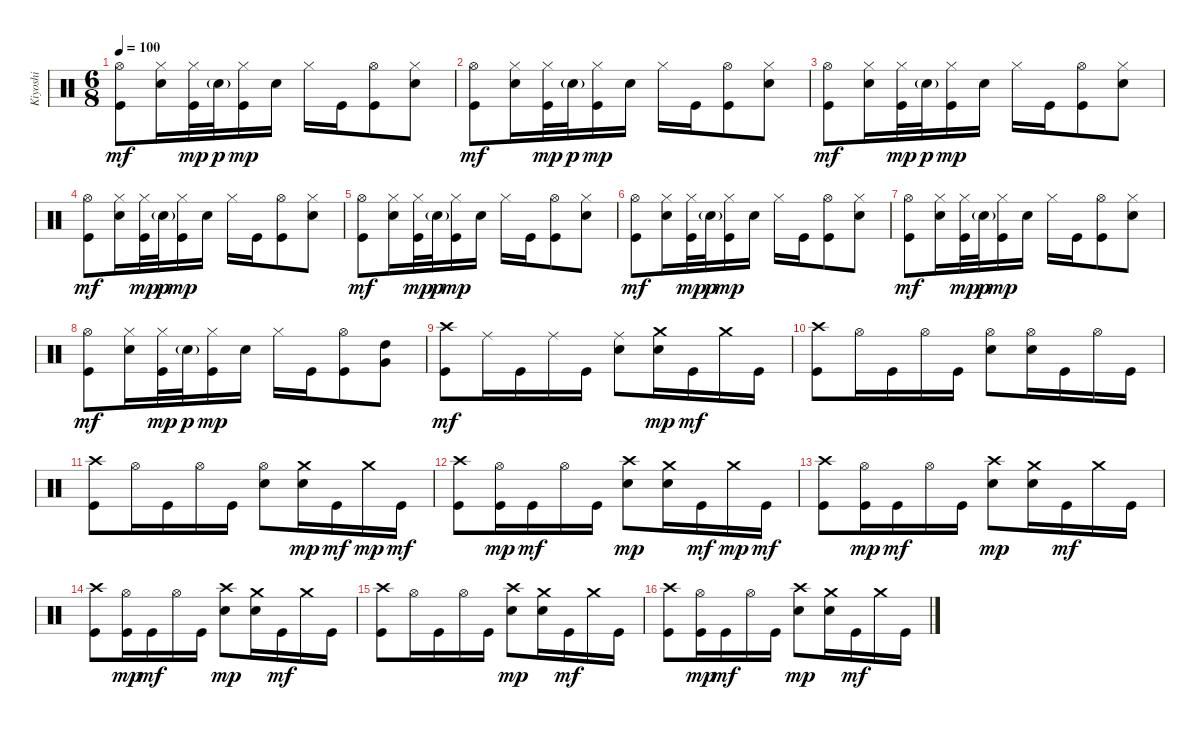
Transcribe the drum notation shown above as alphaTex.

\track ("Kiyoshi" "Kiyoshi") {instrument percussion}
\staff {score}
\articulation defaults
\ts (6 8)
\tempo 100
\clef neutral
\ks c
("Kick (hit)" "Hi-Hat (open)").8{dy mf} ("Electric Snare (hit)" "Hi-Hat (closed)").16 ("Hi-Hat (closed)" "Kick (hit)").32{dy mp} "Electric Snare (hit)"{g}.32{dy p} ("Hi-Hat (closed)" "Kick (hit)").16{dy mp} "Electric Snare (hit)".16 "Hi-Hat (closed)".16 "Kick (hit)".16 ("Kick (hit)" "Hi-Hat (open)").8 ("Hi-Hat (closed)" "Electric Snare (hit)").8 |
("Kick (hit)" "Hi-Hat (open)").8{dy mf} ("Electric Snare (hit)" "Hi-Hat (closed)").16 ("Hi-Hat (closed)" "Kick (hit)").32{dy mp} "Electric Snare (hit)"{g}.32{dy p} ("Hi-Hat (closed)" "Kick (hit)").16{dy mp} "Electric Snare (hit)".16 "Hi-Hat (closed)".16 "Kick (hit)".16 ("Kick (hit)" "Hi-Hat (open)").8 ("Hi-Hat (closed)" "Electric Snare (hit)").8 |
("Kick (hit)" "Hi-Hat (open)").8{dy mf} ("Electric Snare (hit)" "Hi-Hat (closed)").16 ("Hi-Hat (closed)" "Kick (hit)").32{dy mp} "Electric Snare (hit)"{g}.32{dy p} ("Hi-Hat (closed)" "Kick (hit)").16{dy mp} "Electric Snare (hit)".16 "Hi-Hat (closed)".16 "Kick (hit)".16 ("Kick (hit)" "Hi-Hat (open)").8 ("Hi-Hat (closed)" "Electric Snare (hit)").8 |
("Kick (hit)" "Hi-Hat (open)").8{dy mf} ("Electric Snare (hit)" "Hi-Hat (closed)").16 ("Hi-Hat (closed)" "Kick (hit)").32{dy mp} "Electric Snare (hit)"{g}.32{dy p} ("Hi-Hat (closed)" "Kick (hit)").16{dy mp} "Electric Snare (hit)".16 "Hi-Hat (closed)".16 "Kick (hit)".16 ("Kick (hit)" "Hi-Hat (open)").8 ("Hi-Hat (closed)" "Electric Snare (hit)").8 |
("Kick (hit)" "Hi-Hat (open)").8{dy mf} ("Electric Snare (hit)" "Hi-Hat (closed)").16 ("Hi-Hat (closed)" "Kick (hit)").32{dy mp} "Electric Snare (hit)"{g}.32{dy p} ("Hi-Hat (closed)" "Kick (hit)").16{dy mp} "Electric Snare (hit)".16 "Hi-Hat (closed)".16 "Kick (hit)".16 ("Kick (hit)" "Hi-Hat (open)").8 ("Hi-Hat (closed)" "Electric Snare (hit)").8 |
("Kick (hit)" "Hi-Hat (open)").8{dy mf} ("Electric Snare (hit)" "Hi-Hat (closed)").16 ("Hi-Hat (closed)" "Kick (hit)").32{dy mp} "Electric Snare (hit)"{g}.32{dy p} ("Hi-Hat (closed)" "Kick (hit)").16{dy mp} "Electric Snare (hit)".16 "Hi-Hat (closed)".16 "Kick (hit)".16 ("Kick (hit)" "Hi-Hat (open)").8 ("Hi-Hat (closed)" "Electric Snare (hit)").8 |
("Kick (hit)" "Hi-Hat (open)").8{dy mf} ("Electric Snare (hit)" "Hi-Hat (closed)").16 ("Hi-Hat (closed)" "Kick (hit)").32{dy mp} "Electric Snare (hit)"{g}.32{dy p} ("Hi-Hat (closed)" "Kick (hit)").16{dy mp} "Electric Snare (hit)".16 "Hi-Hat (closed)".16 "Kick (hit)".16 ("Kick (hit)" "Hi-Hat (open)").8 ("Hi-Hat (closed)" "Electric Snare (hit)").8 |
("Kick (hit)" "Hi-Hat (open)").8{dy mf} ("Electric Snare (hit)" "Hi-Hat (closed)").16 ("Hi-Hat (closed)" "Kick (hit)").32{dy mp} "Electric Snare (hit)"{g}.32{dy p} ("Hi-Hat (closed)" "Kick (hit)").16{dy mp} "Electric Snare (hit)".16 "Hi-Hat (closed)".16 "Kick (hit)".16 ("Kick (hit)" "Hi-Hat (open)").8 ("High Tom (hit)" "Very Low Tom (hit)").8 |
("Kick (hit)" "Crash high (hit)").8{dy mf} "Ride (middle)".16 "Kick (hit)".16 "Ride (middle)".16 "Kick (hit)".16 ("Electric Snare (hit)" "Ride (middle)").8 ("Electric Snare (hit)" "Crash medium (hit)").16{dy mp} "Kick (hit)".16{dy mf} "Crash medium (hit)".16 "Kick (hit)".16 |
("Kick (hit)" "Crash high (hit)").8 "Hi-Hat (open)".16 "Kick (hit)".16 "Hi-Hat (open)".16 "Kick (hit)".16 ("Electric Snare (hit)" "Hi-Hat (open)").8 ("Electric Snare (hit)" "Hi-Hat (open)").16 "Kick (hit)".16 "Hi-Hat (open)".16 "Kick (hit)".16 |
("Kick (hit)" "Crash high (hit)").8 "Hi-Hat (open)".16 "Kick (hit)".16 "Hi-Hat (open)".16 "Kick (hit)".16 ("Electric Snare (hit)" "Hi-Hat (open)").8 ("Electric Snare (hit)" "Crash medium (hit)").16{dy mp} "Kick (hit)".16{dy mf} "Crash medium (hit)".16{dy mp} "Kick (hit)".16{dy mf} |
("Kick (hit)" "Crash high (hit)").8 ("Hi-Hat (open)" "Kick (hit)").16{dy mp} "Kick (hit)".16{dy mf} "Hi-Hat (open)".16 "Kick (hit)".16 ("Electric Snare (hit)" "Crash high (hit)").8{dy mp} ("Electric Snare (hit)" "Crash medium (hit)").16 "Kick (hit)".16{dy mf} "Crash medium (hit)".16{dy mp} "Kick (hit)".16{dy mf} |
("Kick (hit)" "Crash high (hit)").8 ("Hi-Hat (open)" "Kick (hit)").16{dy mp} "Kick (hit)".16{dy mf} "Hi-Hat (open)".16 "Kick (hit)".16 ("Electric Snare (hit)" "Crash high (hit)").8{dy mp} ("Electric Snare (hit)" "Crash medium (hit)").16 "Kick (hit)".16{dy mf} "Crash medium (hit)".16 "Kick (hit)".16 |
("Kick (hit)" "Crash high (hit)").8 ("Hi-Hat (open)" "Kick (hit)").16{dy mp} "Kick (hit)".16{dy mf} "Hi-Hat (open)".16 "Kick (hit)".16 ("Electric Snare (hit)" "Crash high (hit)").8{dy mp} ("Electric Snare (hit)" "Crash medium (hit)").16 "Kick (hit)".16{dy mf} "Crash medium (hit)".16 "Kick (hit)".16 |
("Kick (hit)" "Crash high (hit)").8 "Hi-Hat (open)".16 "Kick (hit)".16 "Hi-Hat (open)".16 "Kick (hit)".16 ("Electric Snare (hit)" "Crash high (hit)").8{dy mp} ("Electric Snare (hit)" "Crash medium (hit)").16 "Kick (hit)".16{dy mf} "Crash medium (hit)".16 "Kick (hit)".16 |
("Kick (hit)" "Crash high (hit)").8 ("Hi-Hat (open)" "Kick (hit)").16{dy mp} "Kick (hit)".16{dy mf} "Hi-Hat (open)".16 "Kick (hit)".16 ("Electric Snare (hit)" "Crash high (hit)").8{dy mp} ("Electric Snare (hit)" "Crash medium (hit)").16 "Kick (hit)".16{dy mf} "Crash medium (hit)".16 "Kick (hit)".16
